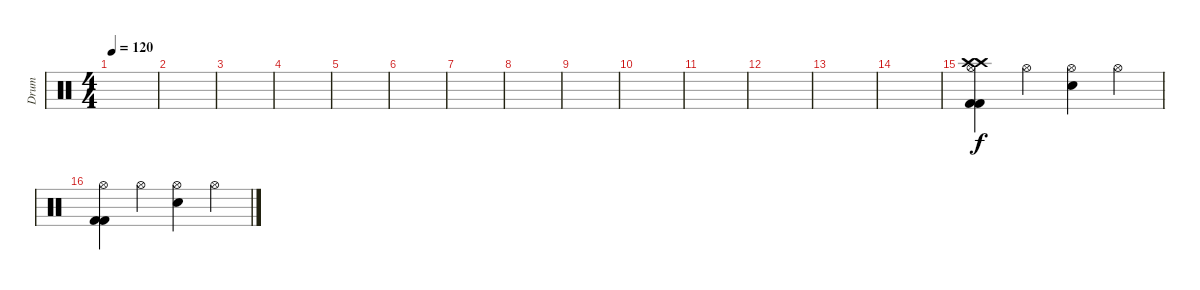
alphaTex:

\track ("Drum" "Drum") {instrument percussion}
\staff {score}
\articulation defaults
\ts (4 4)
\tempo 120
\clef neutral
\ks c
|
|
|
|
|
|
|
|
|
|
|
|
|
|
("Kick (hit) 2" "Kick (hit) 2" "Crash high (hit)" "Crash high (hit)" "Hi-Hat (open)").4 "Hi-Hat (open)".4 ("Snare (hit) 2" "Hi-Hat (open)").4 "Hi-Hat (open)".4 |
("Kick (hit) 2" "Kick (hit) 2" "Hi-Hat (open)").4 "Hi-Hat (open)".4 ("Snare (hit) 2" "Hi-Hat (open)").4 "Hi-Hat (open)".4
